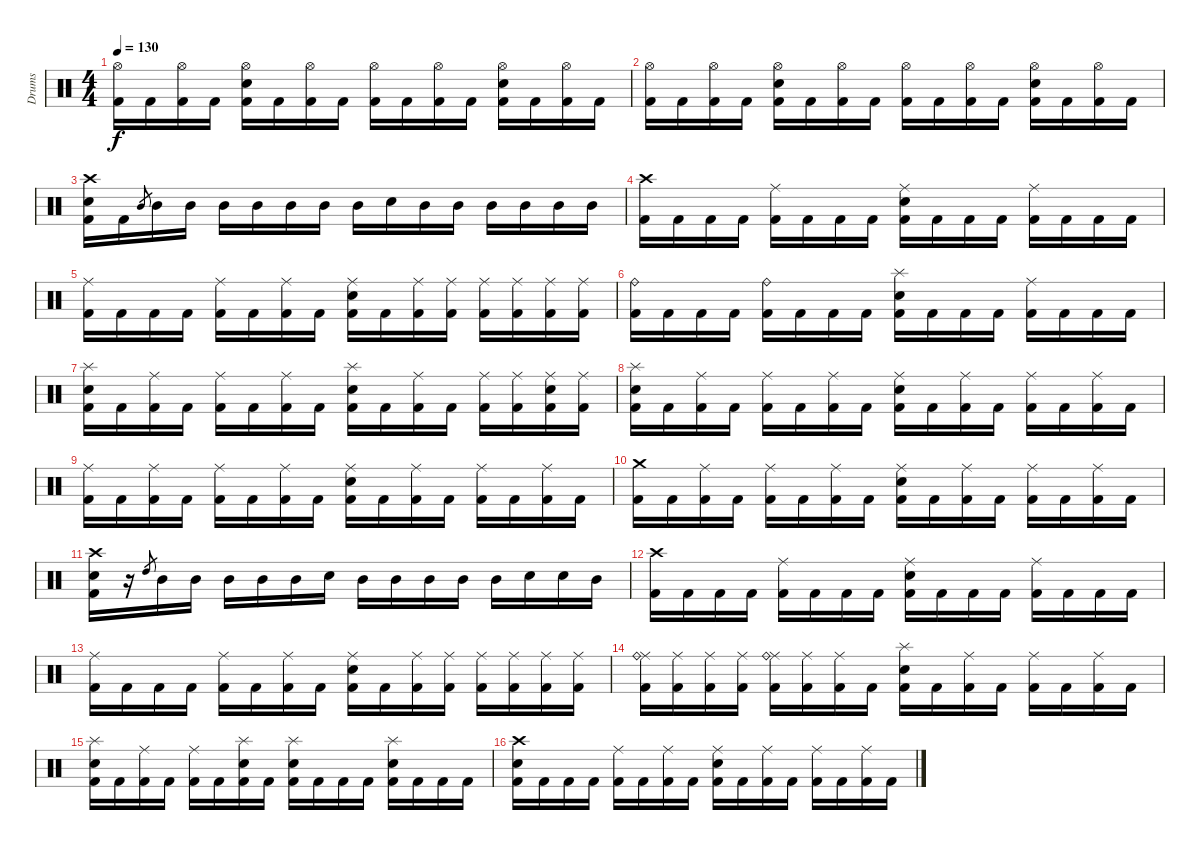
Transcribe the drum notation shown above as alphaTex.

\track ("Drums" "Drums") {instrument percussion}
\staff {score}
\articulation defaults
\ts (4 4)
\tempo 130
\clef neutral
\ks c
("Hi-Hat (open)" "Kick (hit) 2").16{dy f} "Kick (hit) 2".16 ("Hi-Hat (open)" "Kick (hit) 2").16 "Kick (hit) 2".16 ("Hi-Hat (open)" "Electric Snare (hit)" "Kick (hit) 2").16 "Kick (hit) 2".16 ("Hi-Hat (open)" "Kick (hit) 2").16 "Kick (hit) 2".16 ("Hi-Hat (open)" "Kick (hit) 2").16 "Kick (hit) 2".16 ("Hi-Hat (open)" "Kick (hit) 2").16 "Kick (hit) 2".16 ("Hi-Hat (open)" "Electric Snare (hit)" "Kick (hit) 2").16 "Kick (hit) 2".16 ("Hi-Hat (open)" "Kick (hit) 2").16 "Kick (hit) 2".16 |
("Hi-Hat (open)" "Kick (hit) 2").16 "Kick (hit) 2".16 ("Hi-Hat (open)" "Kick (hit) 2").16 "Kick (hit) 2".16 ("Hi-Hat (open)" "Electric Snare (hit)" "Kick (hit) 2").16 "Kick (hit) 2".16 ("Hi-Hat (open)" "Kick (hit) 2").16 "Kick (hit) 2".16 ("Hi-Hat (open)" "Kick (hit) 2").16 "Kick (hit) 2".16 ("Hi-Hat (open)" "Kick (hit) 2").16 "Kick (hit) 2".16 ("Hi-Hat (open)" "Electric Snare (hit)" "Kick (hit) 2").16 "Kick (hit) 2".16 ("Hi-Hat (open)" "Kick (hit) 2").16 "Kick (hit) 2".16 |
("Crash high (hit)" "Electric Snare (hit)" "Kick (hit) 2").16 "Kick (hit) 2".16 "Mid Tom (hit)".8{gr} "Mid Tom (hit)".16 "Mid Tom (hit)".16 "Mid Tom (hit)".16 "Mid Tom (hit)".16 "Mid Tom (hit)".16 "Mid Tom (hit)".16 "Mid Tom (hit)".16 "Electric Snare (hit)".16 "Mid Tom (hit)".16 "Mid Tom (hit)".16 "Mid Tom (hit)".16 "Mid Tom (hit)".16 "Mid Tom (hit)".16 "Mid Tom (hit)".16 |
("Crash high (hit)" "Kick (hit) 2").16 "Kick (hit) 2".16 "Kick (hit) 2".16 "Kick (hit) 2".16 ("Ride (middle)" "Kick (hit) 2").16 "Kick (hit) 2".16 "Kick (hit) 2".16 "Kick (hit) 2".16 ("Ride (middle)" "Electric Snare (hit)" "Kick (hit) 2").16 "Kick (hit) 2".16 "Kick (hit) 2".16 "Kick (hit) 2".16 ("Ride (middle)" "Kick (hit) 2").16 "Kick (hit) 2".16 "Kick (hit) 2".16 "Kick (hit) 2".16 |
("Ride (middle)" "Kick (hit) 2").16 "Kick (hit) 2".16 "Kick (hit) 2".16 "Kick (hit) 2".16 ("Ride (middle)" "Kick (hit) 2").16 "Kick (hit) 2".16 ("Ride (middle)" "Kick (hit) 2").16 "Kick (hit) 2".16 ("Ride (middle)" "Electric Snare (hit)" "Kick (hit) 2").16 "Kick (hit) 2".16 ("Ride (middle)" "Kick (hit) 2").16 ("Ride (middle)" "Kick (hit) 2").16 ("Ride (middle)" "Kick (hit) 2").16 ("Ride (middle)" "Kick (hit) 2").16 ("Ride (middle)" "Kick (hit) 2").16 ("Ride (middle)" "Kick (hit) 2").16 |
("Ride (bell)" "Kick (hit) 2").16 "Kick (hit) 2".16 "Kick (hit) 2".16 "Kick (hit) 2".16 ("Ride (bell)" "Kick (hit) 2").16 "Kick (hit) 2".16 "Kick (hit) 2".16 "Kick (hit) 2".16 ("Splash (hit)" "Electric Snare (hit)" "Kick (hit) 2").16 "Kick (hit) 2".16 "Kick (hit) 2".16 "Kick (hit) 2".16 ("Ride (middle)" "Kick (hit) 2").16 "Kick (hit) 2".16 "Kick (hit) 2".16 "Kick (hit) 2".16 |
("Splash (hit)" "Electric Snare (hit)" "Kick (hit) 2").16 "Kick (hit) 2".16 ("Ride (middle)" "Kick (hit) 2").16 "Kick (hit) 2".16 ("Ride (middle)" "Kick (hit) 2").16 "Kick (hit) 2".16 ("Ride (middle)" "Kick (hit) 2").16 "Kick (hit) 2".16 ("Splash (hit)" "Electric Snare (hit)" "Kick (hit) 2").16 "Kick (hit) 2".16 ("Ride (middle)" "Kick (hit) 2").16 "Kick (hit) 2".16 ("Ride (middle)" "Kick (hit) 2").16 ("Ride (middle)" "Kick (hit) 2").16 ("Ride (middle)" "Electric Snare (hit)" "Kick (hit) 2").16 ("Ride (middle)" "Kick (hit) 2").16 |
("Splash (hit)" "Electric Snare (hit)" "Kick (hit) 2").16 "Kick (hit) 2".16 ("Ride (middle)" "Kick (hit) 2").16 "Kick (hit) 2".16 ("Ride (middle)" "Kick (hit) 2").16 "Kick (hit) 2".16 ("Ride (middle)" "Kick (hit) 2").16 "Kick (hit) 2".16 ("Ride (middle)" "Electric Snare (hit)" "Kick (hit) 2").16 "Kick (hit) 2".16 ("Ride (middle)" "Kick (hit) 2").16 "Kick (hit) 2".16 ("Ride (middle)" "Kick (hit) 2").16 "Kick (hit) 2".16 ("Ride (middle)" "Kick (hit) 2").16 "Kick (hit) 2".16 |
("Ride (middle)" "Kick (hit) 2").16 "Kick (hit) 2".16 ("Ride (middle)" "Kick (hit) 2").16 "Kick (hit) 2".16 ("Ride (middle)" "Kick (hit) 2").16 "Kick (hit) 2".16 ("Ride (middle)" "Kick (hit) 2").16 "Kick (hit) 2".16 ("Ride (middle)" "Electric Snare (hit)" "Kick (hit) 2").16 "Kick (hit) 2".16 ("Ride (middle)" "Kick (hit) 2").16 "Kick (hit) 2".16 ("Ride (middle)" "Kick (hit) 2").16 "Kick (hit) 2".16 ("Ride (middle)" "Kick (hit) 2").16 "Kick (hit) 2".16 |
("Crash medium (hit)" "Kick (hit) 2").16 "Kick (hit) 2".16 ("Ride (middle)" "Kick (hit) 2").16 "Kick (hit) 2".16 ("Ride (middle)" "Kick (hit) 2").16 "Kick (hit) 2".16 ("Ride (middle)" "Kick (hit) 2").16 "Kick (hit) 2".16 ("Ride (middle)" "Electric Snare (hit)" "Kick (hit) 2").16 "Kick (hit) 2".16 ("Ride (middle)" "Kick (hit) 2").16 "Kick (hit) 2".16 ("Ride (middle)" "Kick (hit) 2").16 "Kick (hit) 2".16 ("Ride (middle)" "Kick (hit) 2").16 "Kick (hit) 2".16 |
("Crash high (hit)" "Electric Snare (hit)" "Kick (hit) 2").16 r.16 "High Tom (hit)".8{gr} "Mid Tom (hit)".16 "Mid Tom (hit)".16 "Mid Tom (hit)".16 "Mid Tom (hit)".16 "Mid Tom (hit)".16 "Electric Snare (hit)".16 "Mid Tom (hit)".16 "Mid Tom (hit)".16 "Mid Tom (hit)".16 "Mid Tom (hit)".16 "Mid Tom (hit)".16 "Electric Snare (hit)".16 "Electric Snare (hit)".16 "Mid Tom (hit)".16 |
("Crash high (hit)" "Kick (hit) 2").16 "Kick (hit) 2".16 "Kick (hit) 2".16 "Kick (hit) 2".16 ("Ride (middle)" "Kick (hit) 2").16 "Kick (hit) 2".16 "Kick (hit) 2".16 "Kick (hit) 2".16 ("Ride (middle)" "Electric Snare (hit)" "Kick (hit) 2").16 "Kick (hit) 2".16 "Kick (hit) 2".16 "Kick (hit) 2".16 ("Ride (middle)" "Kick (hit) 2").16 "Kick (hit) 2".16 "Kick (hit) 2".16 "Kick (hit) 2".16 |
("Ride (middle)" "Kick (hit) 2").16 "Kick (hit) 2".16 "Kick (hit) 2".16 "Kick (hit) 2".16 ("Ride (middle)" "Kick (hit) 2").16 "Kick (hit) 2".16 ("Ride (middle)" "Kick (hit) 2").16 "Kick (hit) 2".16 ("Ride (middle)" "Electric Snare (hit)" "Kick (hit) 2").16 "Kick (hit) 2".16 ("Ride (middle)" "Kick (hit) 2").16 ("Ride (middle)" "Kick (hit) 2").16 ("Ride (middle)" "Kick (hit) 2").16 ("Ride (middle)" "Kick (hit) 2").16 ("Ride (middle)" "Kick (hit) 2").16 ("Ride (middle)" "Kick (hit) 2").16 |
("Ride (middle)" "Ride (bell)" "Kick (hit) 2").16 ("Ride (middle)" "Kick (hit) 2").16 ("Ride (middle)" "Kick (hit) 2").16 ("Ride (middle)" "Kick (hit) 2").16 ("Ride (middle)" "Ride (bell)" "Kick (hit) 2").16 ("Ride (middle)" "Kick (hit) 2").16 ("Ride (middle)" "Kick (hit) 2").16 "Kick (hit) 2".16 ("Splash (hit)" "Electric Snare (hit)" "Kick (hit) 2").16 "Kick (hit) 2".16 ("Ride (middle)" "Kick (hit) 2").16 "Kick (hit) 2".16 ("Ride (middle)" "Kick (hit) 2").16 "Kick (hit) 2".16 ("Ride (middle)" "Kick (hit) 2").16 "Kick (hit) 2".16 |
("Splash (hit)" "Electric Snare (hit)" "Kick (hit) 2").16 "Kick (hit) 2".16 ("Ride (middle)" "Kick (hit) 2").16 "Kick (hit) 2".16 ("Ride (middle)" "Kick (hit) 2").16 "Kick (hit) 2".16 ("Splash (hit)" "Electric Snare (hit)" "Kick (hit) 2").16 "Kick (hit) 2".16 ("Splash (hit)" "Electric Snare (hit)" "Kick (hit) 2").16 "Kick (hit) 2".16 "Kick (hit) 2".16 "Kick (hit) 2".16 ("Splash (hit)" "Electric Snare (hit)" "Kick (hit) 2").16 "Kick (hit) 2".16 "Kick (hit) 2".16 "Kick (hit) 2".16 |
("Crash high (hit)" "Electric Snare (hit)" "Kick (hit) 2").16 "Kick (hit) 2".16 "Kick (hit) 2".16 "Kick (hit) 2".16 ("Ride (middle)" "Kick (hit) 2").16 "Kick (hit) 2".16 ("Ride (middle)" "Kick (hit) 2").16 "Kick (hit) 2".16 ("Ride (middle)" "Electric Snare (hit)" "Kick (hit) 2").16 "Kick (hit) 2".16 ("Ride (middle)" "Kick (hit) 2").16 "Kick (hit) 2".16 ("Ride (middle)" "Kick (hit) 2").16 "Kick (hit) 2".16 ("Ride (middle)" "Kick (hit) 2").16 "Kick (hit) 2".16
